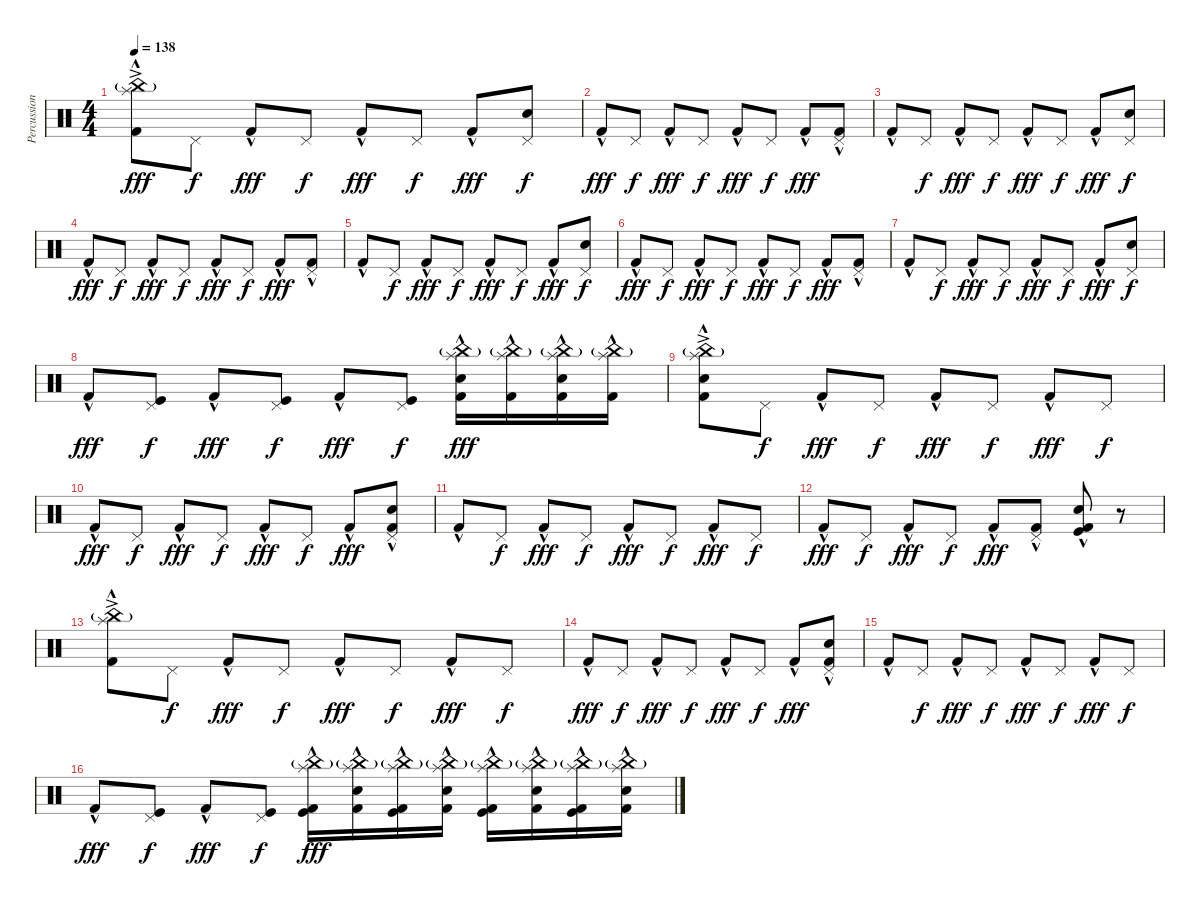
\track ("Percussions" "Percussion") {instrument percussion}
\staff {score}
\articulation defaults
\ts (4 4)
\tempo 138
\clef neutral
\ks c
("Splash (hit)"{ac} "China (hit)"{g} "Kick (hit) 2"{hac}).8{dy fff} "Pedal Hi-Hat (hit)".8{dy f} "Kick (hit) 2"{hac}.8{dy fff} "Pedal Hi-Hat (hit)".8{dy f} "Kick (hit) 2"{hac}.8{dy fff} "Pedal Hi-Hat (hit)".8{dy f} "Kick (hit) 2"{hac}.8{dy fff} ("Snare (hit) 2" "Pedal Hi-Hat (hit)").8{dy f} |
"Kick (hit) 2"{hac}.8{dy fff} "Pedal Hi-Hat (hit)".8{dy f} "Kick (hit) 2"{hac}.8{dy fff} "Pedal Hi-Hat (hit)".8{dy f} "Kick (hit) 2"{hac}.8{dy fff} "Pedal Hi-Hat (hit)".8{dy f} "Kick (hit) 2"{hac}.8{dy fff} ("Pedal Hi-Hat (hit)" "Kick (hit) 2"{hac}).8 |
"Kick (hit) 2"{hac}.8 "Pedal Hi-Hat (hit)".8{dy f} "Kick (hit) 2"{hac}.8{dy fff} "Pedal Hi-Hat (hit)".8{dy f} "Kick (hit) 2"{hac}.8{dy fff} "Pedal Hi-Hat (hit)".8{dy f} "Kick (hit) 2"{hac}.8{dy fff} ("Snare (hit) 2" "Pedal Hi-Hat (hit)").8{dy f} |
"Kick (hit) 2"{hac}.8{dy fff} "Pedal Hi-Hat (hit)".8{dy f} "Kick (hit) 2"{hac}.8{dy fff} "Pedal Hi-Hat (hit)".8{dy f} "Kick (hit) 2"{hac}.8{dy fff} "Pedal Hi-Hat (hit)".8{dy f} "Kick (hit) 2"{hac}.8{dy fff} ("Pedal Hi-Hat (hit)" "Kick (hit) 2"{hac}).8 |
"Kick (hit) 2"{hac}.8 "Pedal Hi-Hat (hit)".8{dy f} "Kick (hit) 2"{hac}.8{dy fff} "Pedal Hi-Hat (hit)".8{dy f} "Kick (hit) 2"{hac}.8{dy fff} "Pedal Hi-Hat (hit)".8{dy f} "Kick (hit) 2"{hac}.8{dy fff} ("Snare (hit) 2" "Pedal Hi-Hat (hit)").8{dy f} |
"Kick (hit) 2"{hac}.8{dy fff} "Pedal Hi-Hat (hit)".8{dy f} "Kick (hit) 2"{hac}.8{dy fff} "Pedal Hi-Hat (hit)".8{dy f} "Kick (hit) 2"{hac}.8{dy fff} "Pedal Hi-Hat (hit)".8{dy f} "Kick (hit) 2"{hac}.8{dy fff} ("Pedal Hi-Hat (hit)" "Kick (hit) 2"{hac}).8 |
"Kick (hit) 2"{hac}.8 "Pedal Hi-Hat (hit)".8{dy f} "Kick (hit) 2"{hac}.8{dy fff} "Pedal Hi-Hat (hit)".8{dy f} "Kick (hit) 2"{hac}.8{dy fff} "Pedal Hi-Hat (hit)".8{dy f} "Kick (hit) 2"{hac}.8{dy fff} ("Snare (hit) 2" "Pedal Hi-Hat (hit)").8{dy f} |
"Kick (hit) 2"{hac}.8{dy fff} ("Pedal Hi-Hat (hit)" "Kick (hit)").8{dy f} "Kick (hit) 2"{hac}.8{dy fff} ("Pedal Hi-Hat (hit)" "Kick (hit)").8{dy f} "Kick (hit) 2"{hac}.8{dy fff} ("Pedal Hi-Hat (hit)" "Kick (hit)").8{dy f} ("Splash (hit)" "China (hit)"{g} "Snare (hit) 2" "Kick (hit) 2"{hac}).16{dy fff} ("Splash (hit)" "China (hit)"{g} "Kick (hit) 2"{hac}).16 ("Splash (hit)" "China (hit)"{g} "Snare (hit) 2" "Kick (hit) 2"{hac}).16 ("Splash (hit)" "China (hit)"{g} "Kick (hit) 2"{hac}).16 |
("Splash (hit)"{ac} "China (hit)"{g} "Snare (hit) 2" "Kick (hit) 2"{hac}).8 "Pedal Hi-Hat (hit)".8{dy f} "Kick (hit) 2"{hac}.8{dy fff} "Pedal Hi-Hat (hit)".8{dy f} "Kick (hit) 2"{hac}.8{dy fff} "Pedal Hi-Hat (hit)".8{dy f} "Kick (hit) 2"{hac}.8{dy fff} "Pedal Hi-Hat (hit)".8{dy f} |
"Kick (hit) 2"{hac}.8{dy fff} "Pedal Hi-Hat (hit)".8{dy f} "Kick (hit) 2"{hac}.8{dy fff} "Pedal Hi-Hat (hit)".8{dy f} "Kick (hit) 2"{hac}.8{dy fff} "Pedal Hi-Hat (hit)".8{dy f} "Kick (hit) 2"{hac}.8{dy fff} ("Snare (hit) 2" "Pedal Hi-Hat (hit)" "Kick (hit) 2"{hac}).8 |
"Kick (hit) 2"{hac}.8 "Pedal Hi-Hat (hit)".8{dy f} "Kick (hit) 2"{hac}.8{dy fff} "Pedal Hi-Hat (hit)".8{dy f} "Kick (hit) 2"{hac}.8{dy fff} "Pedal Hi-Hat (hit)".8{dy f} "Kick (hit) 2"{hac}.8{dy fff} "Pedal Hi-Hat (hit)".8{dy f} |
"Kick (hit) 2"{hac}.8{dy fff} "Pedal Hi-Hat (hit)".8{dy f} "Kick (hit) 2"{hac}.8{dy fff} "Pedal Hi-Hat (hit)".8{dy f} "Kick (hit) 2"{hac}.8{dy fff} ("Pedal Hi-Hat (hit)" "Kick (hit) 2"{hac}).8 ("Snare (hit) 2" "Kick (hit)" "Kick (hit) 2"{hac}).8 r.8 |
("Splash (hit)"{ac} "China (hit)"{g} "Kick (hit) 2"{hac}).8 "Pedal Hi-Hat (hit)".8{dy f} "Kick (hit) 2"{hac}.8{dy fff} "Pedal Hi-Hat (hit)".8{dy f} "Kick (hit) 2"{hac}.8{dy fff} "Pedal Hi-Hat (hit)".8{dy f} "Kick (hit) 2"{hac}.8{dy fff} "Pedal Hi-Hat (hit)".8{dy f} |
"Kick (hit) 2"{hac}.8{dy fff} "Pedal Hi-Hat (hit)".8{dy f} "Kick (hit) 2"{hac}.8{dy fff} "Pedal Hi-Hat (hit)".8{dy f} "Kick (hit) 2"{hac}.8{dy fff} "Pedal Hi-Hat (hit)".8{dy f} "Kick (hit) 2"{hac}.8{dy fff} ("Snare (hit) 2" "Pedal Hi-Hat (hit)" "Kick (hit) 2"{hac}).8 |
"Kick (hit) 2"{hac}.8 "Pedal Hi-Hat (hit)".8{dy f} "Kick (hit) 2"{hac}.8{dy fff} "Pedal Hi-Hat (hit)".8{dy f} "Kick (hit) 2"{hac}.8{dy fff} "Pedal Hi-Hat (hit)".8{dy f} "Kick (hit) 2"{hac}.8{dy fff} "Pedal Hi-Hat (hit)".8{dy f} |
"Kick (hit) 2"{hac}.8{dy fff} ("Pedal Hi-Hat (hit)" "Kick (hit)").8{dy f} "Kick (hit) 2"{hac}.8{dy fff} ("Pedal Hi-Hat (hit)" "Kick (hit)").8{dy f} ("Splash (hit)" "China (hit)"{g} "Kick (hit)" "Kick (hit) 2"{hac}).16{dy fff} ("Splash (hit)" "China (hit)"{g} "Snare (hit) 2" "Kick (hit) 2"{hac}).16 ("Splash (hit)" "China (hit)"{g} "Kick (hit)" "Kick (hit) 2"{hac}).16 ("Splash (hit)" "China (hit)"{g} "Snare (hit) 2" "Kick (hit) 2"{hac}).16 ("Splash (hit)" "China (hit)"{g} "Kick (hit)" "Kick (hit) 2"{hac}).16 ("Splash (hit)" "China (hit)"{g} "Snare (hit) 2" "Kick (hit) 2"{hac}).16 ("Splash (hit)" "China (hit)"{g} "Kick (hit)" "Kick (hit) 2"{hac}).16 ("Splash (hit)" "China (hit)"{g} "Snare (hit) 2" "Kick (hit) 2"{hac}).16
